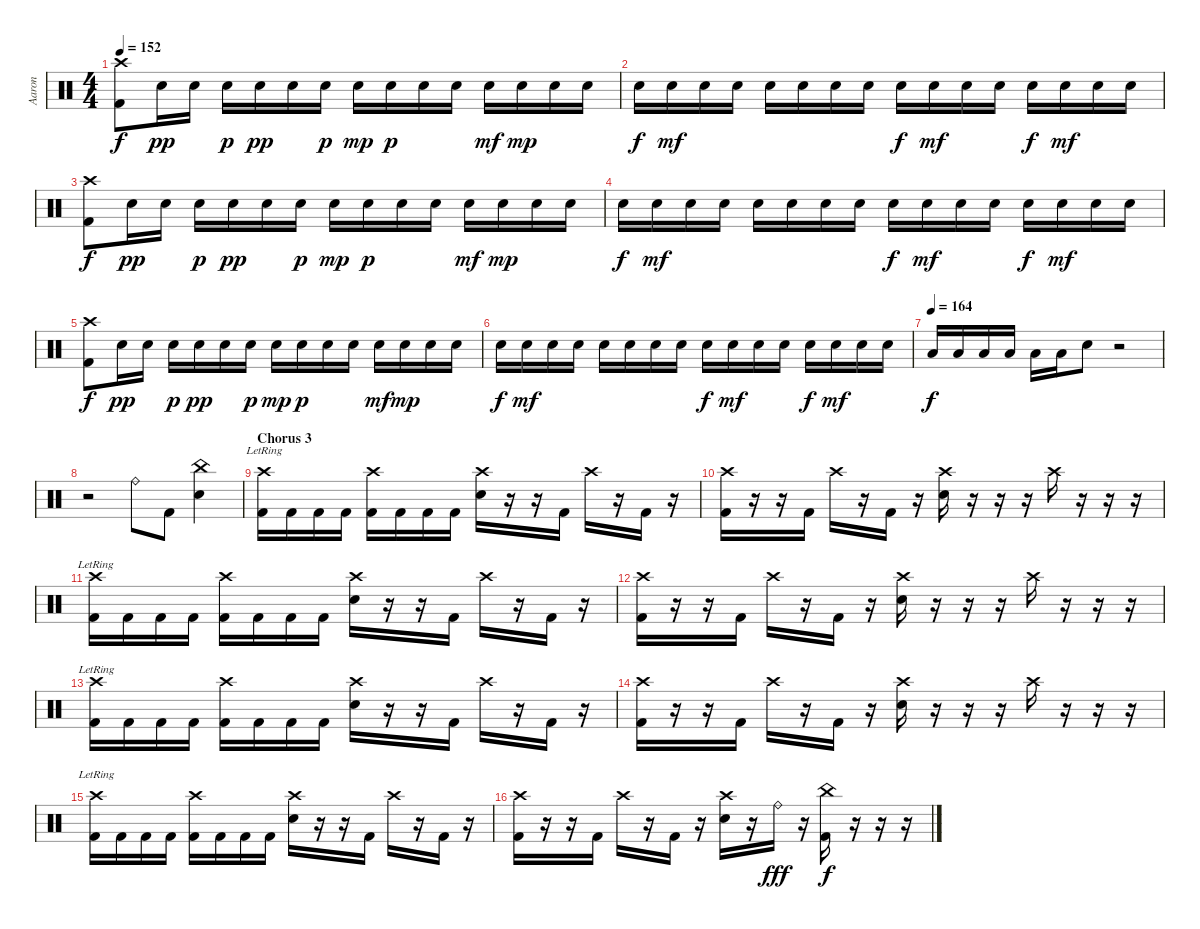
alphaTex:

\track ("Aaron" "Aaron") {instrument percussion}
\staff {score}
\articulation defaults
\ts (4 4)
\tempo 152
\clef neutral
\ks c
("Crash high (hit)" "Kick (hit) 2").8{dy f} "Snare (hit) 2".16{dy pp} "Snare (hit) 2".16 "Snare (hit) 2".16{dy p} "Snare (hit) 2".16{dy pp} "Snare (hit) 2".16 "Snare (hit) 2".16{dy p} "Snare (hit) 2".16{dy mp} "Snare (hit) 2".16{dy p} "Snare (hit) 2".16 "Snare (hit) 2".16 "Snare (hit) 2".16{dy mf} "Snare (hit) 2".16{dy mp} "Snare (hit) 2".16 "Snare (hit) 2".16 |
"Snare (hit) 2".16{dy f} "Snare (hit) 2".16{dy mf} "Snare (hit) 2".16 "Snare (hit) 2".16 "Snare (hit) 2".16 "Snare (hit) 2".16 "Snare (hit) 2".16 "Snare (hit) 2".16 "Snare (hit) 2".16{dy f} "Snare (hit) 2".16{dy mf} "Snare (hit) 2".16 "Snare (hit) 2".16 "Snare (hit) 2".16{dy f} "Snare (hit) 2".16{dy mf} "Snare (hit) 2".16 "Snare (hit) 2".16 |
("Crash high (hit)" "Kick (hit) 2").8{dy f} "Snare (hit) 2".16{dy pp} "Snare (hit) 2".16 "Snare (hit) 2".16{dy p} "Snare (hit) 2".16{dy pp} "Snare (hit) 2".16 "Snare (hit) 2".16{dy p} "Snare (hit) 2".16{dy mp} "Snare (hit) 2".16{dy p} "Snare (hit) 2".16 "Snare (hit) 2".16 "Snare (hit) 2".16{dy mf} "Snare (hit) 2".16{dy mp} "Snare (hit) 2".16 "Snare (hit) 2".16 |
"Snare (hit) 2".16{dy f} "Snare (hit) 2".16{dy mf} "Snare (hit) 2".16 "Snare (hit) 2".16 "Snare (hit) 2".16 "Snare (hit) 2".16 "Snare (hit) 2".16 "Snare (hit) 2".16 "Snare (hit) 2".16{dy f} "Snare (hit) 2".16{dy mf} "Snare (hit) 2".16 "Snare (hit) 2".16 "Snare (hit) 2".16{dy f} "Snare (hit) 2".16{dy mf} "Snare (hit) 2".16 "Snare (hit) 2".16 |
("Crash high (hit)" "Kick (hit) 2").8{dy f} "Snare (hit) 2".16{dy pp} "Snare (hit) 2".16 "Snare (hit) 2".16{dy p} "Snare (hit) 2".16{dy pp} "Snare (hit) 2".16 "Snare (hit) 2".16{dy p} "Snare (hit) 2".16{dy mp} "Snare (hit) 2".16{dy p} "Snare (hit) 2".16 "Snare (hit) 2".16 "Snare (hit) 2".16{dy mf} "Snare (hit) 2".16{dy mp} "Snare (hit) 2".16 "Snare (hit) 2".16 |
"Snare (hit) 2".16{dy f} "Snare (hit) 2".16{dy mf} "Snare (hit) 2".16 "Snare (hit) 2".16 "Snare (hit) 2".16 "Snare (hit) 2".16 "Snare (hit) 2".16 "Snare (hit) 2".16 "Snare (hit) 2".16{dy f} "Snare (hit) 2".16{dy mf} "Snare (hit) 2".16 "Snare (hit) 2".16 "Snare (hit) 2".16{dy f} "Snare (hit) 2".16{dy mf} "Snare (hit) 2".16 "Snare (hit) 2".16 |
\tempo (164)
"Low Tom (hit)".16{dy f} "Low Tom (hit)".16 "Low Tom (hit)".16 "Low Tom (hit)".16 "Low Tom (hit)".16 "Low Tom (hit)".16 "Snare (hit) 2".8 r.2 |
r.2 "Ride (bell)".8 "Kick (hit) 2".8 ("China (hit)" "Snare (hit) 2").4 |
\section ("" "Chorus 3")
("Crash high (hit)"{lr} "Kick (hit) 2").16 "Kick (hit) 2".16 "Kick (hit) 2".16 "Kick (hit) 2".16 ("Crash high (hit)" "Kick (hit) 2").16 "Kick (hit) 2".16 "Kick (hit) 2".16 "Kick (hit) 2".16 ("Crash high (hit)" "Snare (hit) 2").16 r.16 r.16 "Kick (hit) 2".16 "Crash high (hit)".16 r.16 "Kick (hit) 2".16 r.16 |
("Crash high (hit)" "Kick (hit) 2").16 r.16 r.16 "Kick (hit) 2".16 "Crash high (hit)".16 r.16 "Kick (hit) 2".16 r.16 ("Crash high (hit)" "Snare (hit) 2").16 r.16 r.16 r.16 "Crash high (hit)".16 r.16 r.16 r.16 |
("Crash high (hit)"{lr} "Kick (hit) 2").16 "Kick (hit) 2".16 "Kick (hit) 2".16 "Kick (hit) 2".16 ("Crash high (hit)" "Kick (hit) 2").16 "Kick (hit) 2".16 "Kick (hit) 2".16 "Kick (hit) 2".16 ("Crash high (hit)" "Snare (hit) 2").16 r.16 r.16 "Kick (hit) 2".16 "Crash high (hit)".16 r.16 "Kick (hit) 2".16 r.16 |
("Crash high (hit)" "Kick (hit) 2").16 r.16 r.16 "Kick (hit) 2".16 "Crash high (hit)".16 r.16 "Kick (hit) 2".16 r.16 ("Crash high (hit)" "Snare (hit) 2").16 r.16 r.16 r.16 "Crash high (hit)".16 r.16 r.16 r.16 |
("Crash high (hit)"{lr} "Kick (hit) 2").16 "Kick (hit) 2".16 "Kick (hit) 2".16 "Kick (hit) 2".16 ("Crash high (hit)" "Kick (hit) 2").16 "Kick (hit) 2".16 "Kick (hit) 2".16 "Kick (hit) 2".16 ("Crash high (hit)" "Snare (hit) 2").16 r.16 r.16 "Kick (hit) 2".16 "Crash high (hit)".16 r.16 "Kick (hit) 2".16 r.16 |
("Crash high (hit)" "Kick (hit) 2").16 r.16 r.16 "Kick (hit) 2".16 "Crash high (hit)".16 r.16 "Kick (hit) 2".16 r.16 ("Crash high (hit)" "Snare (hit) 2").16 r.16 r.16 r.16 "Crash high (hit)".16 r.16 r.16 r.16 |
("Crash high (hit)"{lr} "Kick (hit) 2").16 "Kick (hit) 2".16 "Kick (hit) 2".16 "Kick (hit) 2".16 ("Crash high (hit)" "Kick (hit) 2").16 "Kick (hit) 2".16 "Kick (hit) 2".16 "Kick (hit) 2".16 ("Crash high (hit)" "Snare (hit) 2").16 r.16 r.16 "Kick (hit) 2".16 "Crash high (hit)".16 r.16 "Kick (hit) 2".16 r.16 |
("Crash high (hit)" "Kick (hit) 2").16 r.16 r.16 "Kick (hit) 2".16 "Crash high (hit)".16 r.16 "Kick (hit) 2".16 r.16 ("Crash high (hit)" "Snare (hit) 2").16 r.16 "Ride (bell)".16{dy fff} r.16 ("China (hit)" "Kick (hit) 2").16{dy f} r.16 r.16 r.16
